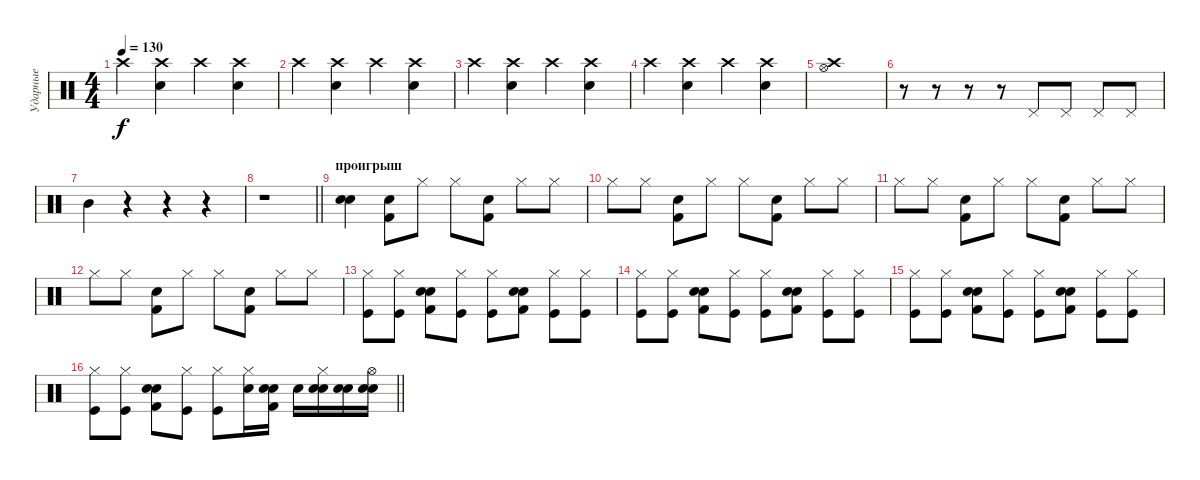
\track ("Ударные" "Ударные") {instrument percussion}
\staff {score}
\articulation defaults
\ts (4 4)
\tempo 130
\clef neutral
\ks c "Crash high (hit)".4{dy f}
("Snare (hit) 2" "Crash high (hit)").4 "Crash high (hit)".4 ("Snare (hit) 2" "Crash high (hit)").4 |
"Crash high (hit)".4 ("Snare (hit) 2" "Crash high (hit)").4 "Crash high (hit)".4 ("Snare (hit) 2" "Crash high (hit)").4 |
"Crash high (hit)".4 ("Snare (hit) 2" "Crash high (hit)").4 "Crash high (hit)".4 ("Snare (hit) 2" "Crash high (hit)").4 |
"Crash high (hit)".4 ("Snare (hit) 2" "Crash high (hit)").4 "Crash high (hit)".4 ("Snare (hit) 2" "Crash high (hit)").4 |
("Crash high (hit)" "Hi-Hat (open)").1 |
r.8 r.8 r.8 r.8 "Pedal Hi-Hat (hit)".8 "Pedal Hi-Hat (hit)".8 "Pedal Hi-Hat (hit)".8 "Pedal Hi-Hat (hit)".8 |
"Mid Tom (hit)".4 r.4 r.4 r.4 |
\barLineRight lightlight
r.1 |
\section ("" "проигрыш")
("Electric Snare (hit)" "Snare (hit) 2").4 ("Snare (hit) 2" "Kick (hit) 2").8 "Hi-Hat (closed)".8 "Hi-Hat (closed)".8 ("Snare (hit) 2" "Kick (hit) 2").8 "Hi-Hat (closed)".8 "Hi-Hat (closed)".8 |
"Hi-Hat (closed)".8 "Hi-Hat (closed)".8 ("Snare (hit) 2" "Kick (hit) 2").8 "Hi-Hat (closed)".8 "Hi-Hat (closed)".8 ("Snare (hit) 2" "Kick (hit) 2").8 "Hi-Hat (closed)".8 "Hi-Hat (closed)".8 |
"Hi-Hat (closed)".8 "Hi-Hat (closed)".8 ("Snare (hit) 2" "Kick (hit) 2").8 "Hi-Hat (closed)".8 "Hi-Hat (closed)".8 ("Snare (hit) 2" "Kick (hit) 2").8 "Hi-Hat (closed)".8 "Hi-Hat (closed)".8 |
"Hi-Hat (closed)".8 "Hi-Hat (closed)".8 ("Snare (hit) 2" "Kick (hit) 2").8 "Hi-Hat (closed)".8 "Hi-Hat (closed)".8 ("Snare (hit) 2" "Kick (hit) 2").8 "Hi-Hat (closed)".8 "Hi-Hat (closed)".8 |
("Hi-Hat (closed)" "Kick (hit)").8 ("Hi-Hat (closed)" "Kick (hit)").8 ("Snare (hit) 2" "Kick (hit) 2" "Electric Snare (hit)").8 ("Hi-Hat (closed)" "Kick (hit)").8 ("Hi-Hat (closed)" "Kick (hit)").8 ("Snare (hit) 2" "Kick (hit) 2" "Electric Snare (hit)").8 ("Hi-Hat (closed)" "Kick (hit)").8 ("Hi-Hat (closed)" "Kick (hit)").8 |
("Hi-Hat (closed)" "Kick (hit)").8 ("Hi-Hat (closed)" "Kick (hit)").8 ("Snare (hit) 2" "Kick (hit) 2" "Electric Snare (hit)").8 ("Hi-Hat (closed)" "Kick (hit)").8 ("Hi-Hat (closed)" "Kick (hit)").8 ("Snare (hit) 2" "Kick (hit) 2" "Electric Snare (hit)").8 ("Hi-Hat (closed)" "Kick (hit)").8 ("Hi-Hat (closed)" "Kick (hit)").8 |
("Hi-Hat (closed)" "Kick (hit)").8 ("Hi-Hat (closed)" "Kick (hit)").8 ("Snare (hit) 2" "Kick (hit) 2" "Electric Snare (hit)").8 ("Hi-Hat (closed)" "Kick (hit)").8 ("Hi-Hat (closed)" "Kick (hit)").8 ("Snare (hit) 2" "Kick (hit) 2" "Electric Snare (hit)").8 ("Hi-Hat (closed)" "Kick (hit)").8 ("Hi-Hat (closed)" "Kick (hit)").8 |
\barLineRight lightlight
("Hi-Hat (closed)" "Kick (hit)").8 ("Hi-Hat (closed)" "Kick (hit)").8 ("Snare (hit) 2" "Kick (hit) 2" "Electric Snare (hit)").8 ("Hi-Hat (closed)" "Kick (hit)").8 ("Hi-Hat (closed)" "Kick (hit)").8 ("Snare (hit) 2" "Hi-Hat (closed)").16 ("Snare (hit) 2" "Kick (hit) 2" "Electric Snare (hit)").16 "Snare (hit) 2".16 ("Snare (hit) 2" "Hi-Hat (closed)" "Electric Snare (hit)").16 ("Snare (hit) 2" "Electric Snare (hit)").16 ("Snare (hit) 2" "Electric Snare (hit)" "Hi-Hat (open)").16
